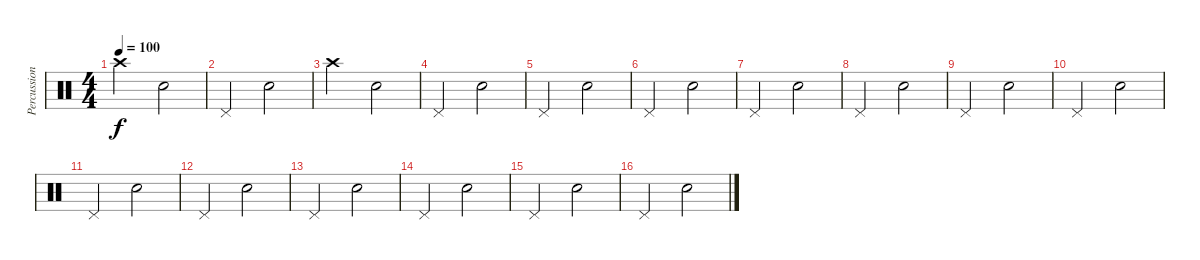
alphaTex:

\track ("Percussioni" "Percussion") {instrument percussion}
\staff {score}
\articulation defaults
\ts (4 4)
\tempo 100
\clef neutral
\ks c "Crash high (hit)".2{dy f} "Snare (hit) 2".2
|
"Pedal Hi-Hat (hit)".2 "Snare (hit) 2".2 |
"Crash high (hit)".2 "Snare (hit) 2".2 |
"Pedal Hi-Hat (hit)".2 "Snare (hit) 2".2 |
"Pedal Hi-Hat (hit)".2 "Snare (hit) 2".2 |
"Pedal Hi-Hat (hit)".2 "Snare (hit) 2".2 |
"Pedal Hi-Hat (hit)".2 "Snare (hit) 2".2 |
"Pedal Hi-Hat (hit)".2 "Snare (hit) 2".2 |
"Pedal Hi-Hat (hit)".2 "Snare (hit) 2".2 |
"Pedal Hi-Hat (hit)".2 "Snare (hit) 2".2 |
"Pedal Hi-Hat (hit)".2 "Snare (hit) 2".2 |
"Pedal Hi-Hat (hit)".2 "Snare (hit) 2".2 |
"Pedal Hi-Hat (hit)".2 "Snare (hit) 2".2 |
"Pedal Hi-Hat (hit)".2 "Snare (hit) 2".2 |
"Pedal Hi-Hat (hit)".2 "Snare (hit) 2".2 |
"Pedal Hi-Hat (hit)".2 "Snare (hit) 2".2
